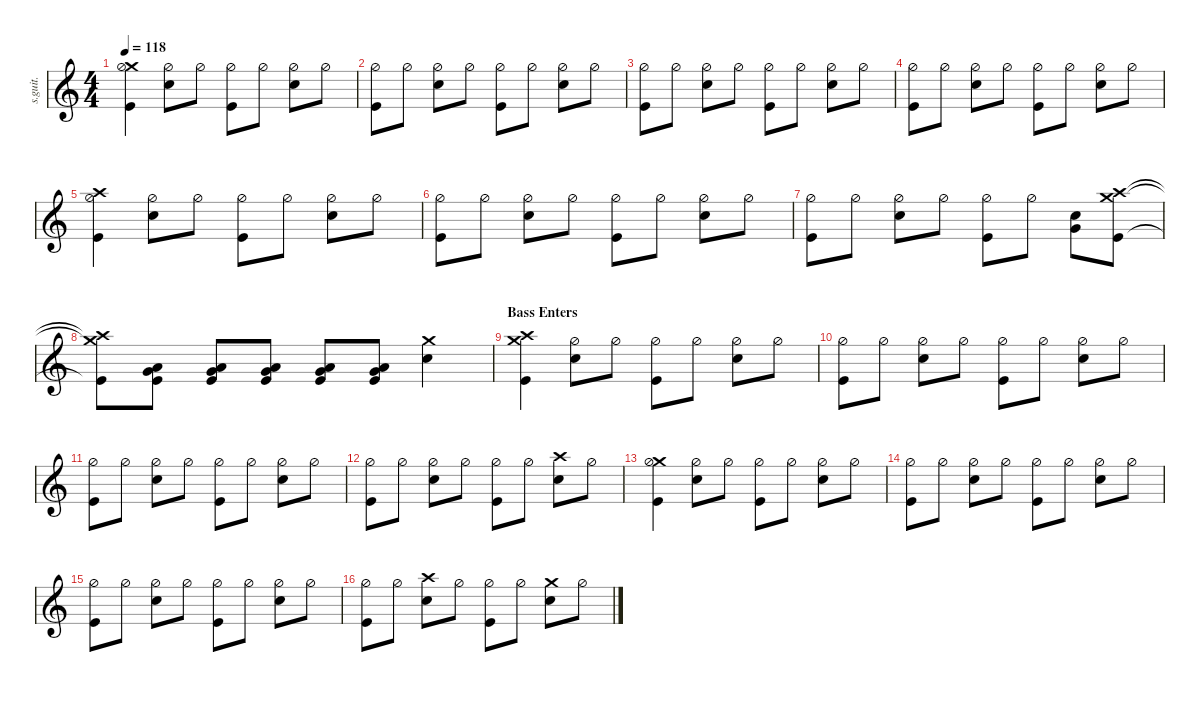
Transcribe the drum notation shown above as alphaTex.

\defaultSystemsLayout 4
\hideDynamics
\bracketExtendMode nobrackets
\track ("Drums [Arin Ilejay]" "s.guit.") {instrument percussion}
\staff {score}
\articulation defaults
\ts (4 4)
\tempo 118
\clef g2
\ks c
("Crash medium (hit)" "Hi-Hat (half)" "Kick (hit)").4{lyrics (0 "") lyrics (1 "") lyrics (2 "") lyrics (3 "") lyrics (4 "") dy f} ("Hi-Hat (half)" "Snare (hit) 2").8{lyrics (0 "") lyrics (1 "") lyrics (2 "") lyrics (3 "") lyrics (4 "")} "Hi-Hat (half)".8{lyrics (0 "") lyrics (1 "") lyrics (2 "") lyrics (3 "") lyrics (4 "")} ("Hi-Hat (half)" "Kick (hit)").8{lyrics (0 "") lyrics (1 "") lyrics (2 "") lyrics (3 "") lyrics (4 "")} "Hi-Hat (half)".8{lyrics (0 "") lyrics (1 "") lyrics (2 "") lyrics (3 "") lyrics (4 "")} ("Hi-Hat (half)" "Snare (hit) 2").8{lyrics (0 "") lyrics (1 "") lyrics (2 "") lyrics (3 "") lyrics (4 "")} "Hi-Hat (half)".8{lyrics (0 "") lyrics (1 "") lyrics (2 "") lyrics (3 "") lyrics (4 "")} |
("Hi-Hat (half)" "Kick (hit)").8{lyrics (0 "") lyrics (1 "") lyrics (2 "") lyrics (3 "") lyrics (4 "")} "Hi-Hat (half)".8{lyrics (0 "") lyrics (1 "") lyrics (2 "") lyrics (3 "") lyrics (4 "")} ("Hi-Hat (half)" "Snare (hit) 2").8{lyrics (0 "") lyrics (1 "") lyrics (2 "") lyrics (3 "") lyrics (4 "")} "Hi-Hat (half)".8{lyrics (0 "") lyrics (1 "") lyrics (2 "") lyrics (3 "") lyrics (4 "")} ("Hi-Hat (half)" "Kick (hit)").8{lyrics (0 "") lyrics (1 "") lyrics (2 "") lyrics (3 "") lyrics (4 "")} "Hi-Hat (half)".8{lyrics (0 "") lyrics (1 "") lyrics (2 "") lyrics (3 "") lyrics (4 "")} ("Hi-Hat (half)" "Snare (hit) 2").8{lyrics (0 "") lyrics (1 "") lyrics (2 "") lyrics (3 "") lyrics (4 "")} "Hi-Hat (half)".8{lyrics (0 "") lyrics (1 "") lyrics (2 "") lyrics (3 "") lyrics (4 "")} |
("Hi-Hat (half)" "Kick (hit)").8{lyrics (0 "") lyrics (1 "") lyrics (2 "") lyrics (3 "") lyrics (4 "")} "Hi-Hat (half)".8{lyrics (0 "") lyrics (1 "") lyrics (2 "") lyrics (3 "") lyrics (4 "")} ("Hi-Hat (half)" "Snare (hit) 2").8{lyrics (0 "") lyrics (1 "") lyrics (2 "") lyrics (3 "") lyrics (4 "")} "Hi-Hat (half)".8{lyrics (0 "") lyrics (1 "") lyrics (2 "") lyrics (3 "") lyrics (4 "")} ("Hi-Hat (half)" "Kick (hit)").8{lyrics (0 "") lyrics (1 "") lyrics (2 "") lyrics (3 "") lyrics (4 "")} "Hi-Hat (half)".8{lyrics (0 "") lyrics (1 "") lyrics (2 "") lyrics (3 "") lyrics (4 "")} ("Hi-Hat (half)" "Snare (hit) 2").8{lyrics (0 "") lyrics (1 "") lyrics (2 "") lyrics (3 "") lyrics (4 "")} "Hi-Hat (half)".8{lyrics (0 "") lyrics (1 "") lyrics (2 "") lyrics (3 "") lyrics (4 "")} |
("Hi-Hat (half)" "Kick (hit)").8{lyrics (0 "") lyrics (1 "") lyrics (2 "") lyrics (3 "") lyrics (4 "")} "Hi-Hat (half)".8{lyrics (0 "") lyrics (1 "") lyrics (2 "") lyrics (3 "") lyrics (4 "")} ("Hi-Hat (half)" "Snare (hit) 2").8{lyrics (0 "") lyrics (1 "") lyrics (2 "") lyrics (3 "") lyrics (4 "")} "Hi-Hat (half)".8{lyrics (0 "") lyrics (1 "") lyrics (2 "") lyrics (3 "") lyrics (4 "")} ("Hi-Hat (half)" "Kick (hit)").8{lyrics (0 "") lyrics (1 "") lyrics (2 "") lyrics (3 "") lyrics (4 "")} "Hi-Hat (half)".8{lyrics (0 "") lyrics (1 "") lyrics (2 "") lyrics (3 "") lyrics (4 "")} ("Hi-Hat (half)" "Snare (hit) 2").8{lyrics (0 "") lyrics (1 "") lyrics (2 "") lyrics (3 "") lyrics (4 "")} "Hi-Hat (half)".8{lyrics (0 "") lyrics (1 "") lyrics (2 "") lyrics (3 "") lyrics (4 "")} |
("Crash high (hit)" "Hi-Hat (half)" "Kick (hit)").4{lyrics (0 "") lyrics (1 "") lyrics (2 "") lyrics (3 "") lyrics (4 "")} ("Hi-Hat (half)" "Snare (hit) 2").8{lyrics (0 "") lyrics (1 "") lyrics (2 "") lyrics (3 "") lyrics (4 "")} "Hi-Hat (half)".8{lyrics (0 "") lyrics (1 "") lyrics (2 "") lyrics (3 "") lyrics (4 "")} ("Hi-Hat (half)" "Kick (hit)").8{lyrics (0 "") lyrics (1 "") lyrics (2 "") lyrics (3 "") lyrics (4 "")} "Hi-Hat (half)".8{lyrics (0 "") lyrics (1 "") lyrics (2 "") lyrics (3 "") lyrics (4 "")} ("Hi-Hat (half)" "Snare (hit) 2").8{lyrics (0 "") lyrics (1 "") lyrics (2 "") lyrics (3 "") lyrics (4 "")} "Hi-Hat (half)".8{lyrics (0 "") lyrics (1 "") lyrics (2 "") lyrics (3 "") lyrics (4 "")} |
("Hi-Hat (half)" "Kick (hit)").8{lyrics (0 "") lyrics (1 "") lyrics (2 "") lyrics (3 "") lyrics (4 "")} "Hi-Hat (half)".8{lyrics (0 "") lyrics (1 "") lyrics (2 "") lyrics (3 "") lyrics (4 "")} ("Hi-Hat (half)" "Snare (hit) 2").8{lyrics (0 "") lyrics (1 "") lyrics (2 "") lyrics (3 "") lyrics (4 "")} "Hi-Hat (half)".8{lyrics (0 "") lyrics (1 "") lyrics (2 "") lyrics (3 "") lyrics (4 "")} ("Hi-Hat (half)" "Kick (hit)").8{lyrics (0 "") lyrics (1 "") lyrics (2 "") lyrics (3 "") lyrics (4 "")} "Hi-Hat (half)".8{lyrics (0 "") lyrics (1 "") lyrics (2 "") lyrics (3 "") lyrics (4 "")} ("Hi-Hat (half)" "Snare (hit) 2").8{lyrics (0 "") lyrics (1 "") lyrics (2 "") lyrics (3 "") lyrics (4 "")} "Hi-Hat (half)".8{lyrics (0 "") lyrics (1 "") lyrics (2 "") lyrics (3 "") lyrics (4 "")} |
("Hi-Hat (half)" "Kick (hit)").8{lyrics (0 "") lyrics (1 "") lyrics (2 "") lyrics (3 "") lyrics (4 "")} "Hi-Hat (half)".8{lyrics (0 "") lyrics (1 "") lyrics (2 "") lyrics (3 "") lyrics (4 "")} ("Hi-Hat (half)" "Snare (hit) 2").8{lyrics (0 "") lyrics (1 "") lyrics (2 "") lyrics (3 "") lyrics (4 "")} "Hi-Hat (half)".8{lyrics (0 "") lyrics (1 "") lyrics (2 "") lyrics (3 "") lyrics (4 "")} ("Hi-Hat (half)" "Kick (hit)").8{lyrics (0 "") lyrics (1 "") lyrics (2 "") lyrics (3 "") lyrics (4 "")} "Hi-Hat (half)".8{lyrics (0 "") lyrics (1 "") lyrics (2 "") lyrics (3 "") lyrics (4 "")} ("Snare (hit) 2" "Very Low Tom (hit)").8{lyrics (0 "") lyrics (1 "") lyrics (2 "") lyrics (3 "") lyrics (4 "")} ("Crash high (hit)" "Crash medium (hit)" "Kick (hit)").8{lyrics (0 "") lyrics (1 "") lyrics (2 "") lyrics (3 "") lyrics (4 "")} |
("Crash high (hit)"{t} "Crash medium (hit)"{t} "Kick (hit)"{t}).8{lyrics (0 "") lyrics (1 "") lyrics (2 "") lyrics (3 "") lyrics (4 "")} ("Low Tom (hit)" "Very Low Tom (hit)" "Kick (hit)").8{lyrics (0 "") lyrics (1 "") lyrics (2 "") lyrics (3 "") lyrics (4 "") dy mp} ("Low Tom (hit)" "Very Low Tom (hit)" "Kick (hit)").8{lyrics (0 "") lyrics (1 "") lyrics (2 "") lyrics (3 "") lyrics (4 "")} ("Low Tom (hit)" "Very Low Tom (hit)" "Kick (hit)").8{lyrics (0 "") lyrics (1 "") lyrics (2 "") lyrics (3 "") lyrics (4 "")} ("Low Tom (hit)" "Very Low Tom (hit)" "Kick (hit)").8{lyrics (0 "") lyrics (1 "") lyrics (2 "") lyrics (3 "") lyrics (4 "")} ("Low Tom (hit)" "Very Low Tom (hit)" "Kick (hit)").8{lyrics (0 "") lyrics (1 "") lyrics (2 "") lyrics (3 "") lyrics (4 "")} ("Crash medium (hit)" "Snare (hit) 2").4{lyrics (0 "") lyrics (1 "") lyrics (2 "") lyrics (3 "") lyrics (4 "") dy f} |
\section ("" "Bass Enters")
("Crash high (hit)" "Crash medium (hit)" "Kick (hit)").4{lyrics (0 "") lyrics (1 "") lyrics (2 "") lyrics (3 "") lyrics (4 "")} ("Hi-Hat (half)" "Snare (hit) 2").8{lyrics (0 "") lyrics (1 "") lyrics (2 "") lyrics (3 "") lyrics (4 "")} "Hi-Hat (half)".8{lyrics (0 "") lyrics (1 "") lyrics (2 "") lyrics (3 "") lyrics (4 "")} ("Hi-Hat (half)" "Kick (hit)").8{lyrics (0 "") lyrics (1 "") lyrics (2 "") lyrics (3 "") lyrics (4 "")} "Hi-Hat (half)".8{lyrics (0 "") lyrics (1 "") lyrics (2 "") lyrics (3 "") lyrics (4 "")} ("Hi-Hat (half)" "Snare (hit) 2").8{lyrics (0 "") lyrics (1 "") lyrics (2 "") lyrics (3 "") lyrics (4 "")} "Hi-Hat (half)".8{lyrics (0 "") lyrics (1 "") lyrics (2 "") lyrics (3 "") lyrics (4 "")} |
("Hi-Hat (half)" "Kick (hit)").8{lyrics (0 "") lyrics (1 "") lyrics (2 "") lyrics (3 "") lyrics (4 "")} "Hi-Hat (half)".8{lyrics (0 "") lyrics (1 "") lyrics (2 "") lyrics (3 "") lyrics (4 "")} ("Hi-Hat (half)" "Snare (hit) 2").8{lyrics (0 "") lyrics (1 "") lyrics (2 "") lyrics (3 "") lyrics (4 "")} "Hi-Hat (half)".8{lyrics (0 "") lyrics (1 "") lyrics (2 "") lyrics (3 "") lyrics (4 "")} ("Hi-Hat (half)" "Kick (hit)").8{lyrics (0 "") lyrics (1 "") lyrics (2 "") lyrics (3 "") lyrics (4 "")} "Hi-Hat (half)".8{lyrics (0 "") lyrics (1 "") lyrics (2 "") lyrics (3 "") lyrics (4 "")} ("Hi-Hat (half)" "Snare (hit) 2").8{lyrics (0 "") lyrics (1 "") lyrics (2 "") lyrics (3 "") lyrics (4 "")} "Hi-Hat (half)".8{lyrics (0 "") lyrics (1 "") lyrics (2 "") lyrics (3 "") lyrics (4 "")} |
("Hi-Hat (half)" "Kick (hit)").8{lyrics (0 "") lyrics (1 "") lyrics (2 "") lyrics (3 "") lyrics (4 "")} "Hi-Hat (half)".8{lyrics (0 "") lyrics (1 "") lyrics (2 "") lyrics (3 "") lyrics (4 "")} ("Hi-Hat (half)" "Snare (hit) 2").8{lyrics (0 "") lyrics (1 "") lyrics (2 "") lyrics (3 "") lyrics (4 "")} "Hi-Hat (half)".8{lyrics (0 "") lyrics (1 "") lyrics (2 "") lyrics (3 "") lyrics (4 "")} ("Hi-Hat (half)" "Kick (hit)").8{lyrics (0 "") lyrics (1 "") lyrics (2 "") lyrics (3 "") lyrics (4 "")} "Hi-Hat (half)".8{lyrics (0 "") lyrics (1 "") lyrics (2 "") lyrics (3 "") lyrics (4 "")} ("Hi-Hat (half)" "Snare (hit) 2").8{lyrics (0 "") lyrics (1 "") lyrics (2 "") lyrics (3 "") lyrics (4 "")} "Hi-Hat (half)".8{lyrics (0 "") lyrics (1 "") lyrics (2 "") lyrics (3 "") lyrics (4 "")} |
("Hi-Hat (half)" "Kick (hit)").8{lyrics (0 "") lyrics (1 "") lyrics (2 "") lyrics (3 "") lyrics (4 "")} "Hi-Hat (half)".8{lyrics (0 "") lyrics (1 "") lyrics (2 "") lyrics (3 "") lyrics (4 "")} ("Hi-Hat (half)" "Snare (hit) 2").8{lyrics (0 "") lyrics (1 "") lyrics (2 "") lyrics (3 "") lyrics (4 "")} "Hi-Hat (half)".8{lyrics (0 "") lyrics (1 "") lyrics (2 "") lyrics (3 "") lyrics (4 "")} ("Hi-Hat (half)" "Kick (hit)").8{lyrics (0 "") lyrics (1 "") lyrics (2 "") lyrics (3 "") lyrics (4 "")} "Hi-Hat (half)".8{lyrics (0 "") lyrics (1 "") lyrics (2 "") lyrics (3 "") lyrics (4 "")} ("Crash high (hit)" "Snare (hit) 2").8{lyrics (0 "") lyrics (1 "") lyrics (2 "") lyrics (3 "") lyrics (4 "")} "Hi-Hat (half)".8{lyrics (0 "") lyrics (1 "") lyrics (2 "") lyrics (3 "") lyrics (4 "")} |
("Crash medium (hit)" "Hi-Hat (half)" "Kick (hit)").4{lyrics (0 "") lyrics (1 "") lyrics (2 "") lyrics (3 "") lyrics (4 "")} ("Hi-Hat (half)" "Snare (hit) 2").8{lyrics (0 "") lyrics (1 "") lyrics (2 "") lyrics (3 "") lyrics (4 "")} "Hi-Hat (half)".8{lyrics (0 "") lyrics (1 "") lyrics (2 "") lyrics (3 "") lyrics (4 "")} ("Hi-Hat (half)" "Kick (hit)").8{lyrics (0 "") lyrics (1 "") lyrics (2 "") lyrics (3 "") lyrics (4 "")} "Hi-Hat (half)".8{lyrics (0 "") lyrics (1 "") lyrics (2 "") lyrics (3 "") lyrics (4 "")} ("Hi-Hat (half)" "Snare (hit) 2").8{lyrics (0 "") lyrics (1 "") lyrics (2 "") lyrics (3 "") lyrics (4 "")} "Hi-Hat (half)".8{lyrics (0 "") lyrics (1 "") lyrics (2 "") lyrics (3 "") lyrics (4 "")} |
("Hi-Hat (half)" "Kick (hit)").8{lyrics (0 "") lyrics (1 "") lyrics (2 "") lyrics (3 "") lyrics (4 "")} "Hi-Hat (half)".8{lyrics (0 "") lyrics (1 "") lyrics (2 "") lyrics (3 "") lyrics (4 "")} ("Hi-Hat (half)" "Snare (hit) 2").8{lyrics (0 "") lyrics (1 "") lyrics (2 "") lyrics (3 "") lyrics (4 "")} "Hi-Hat (half)".8{lyrics (0 "") lyrics (1 "") lyrics (2 "") lyrics (3 "") lyrics (4 "")} ("Hi-Hat (half)" "Kick (hit)").8{lyrics (0 "") lyrics (1 "") lyrics (2 "") lyrics (3 "") lyrics (4 "")} "Hi-Hat (half)".8{lyrics (0 "") lyrics (1 "") lyrics (2 "") lyrics (3 "") lyrics (4 "")} ("Hi-Hat (half)" "Snare (hit) 2").8{lyrics (0 "") lyrics (1 "") lyrics (2 "") lyrics (3 "") lyrics (4 "")} "Hi-Hat (half)".8{lyrics (0 "") lyrics (1 "") lyrics (2 "") lyrics (3 "") lyrics (4 "")} |
("Hi-Hat (half)" "Kick (hit)").8{lyrics (0 "") lyrics (1 "") lyrics (2 "") lyrics (3 "") lyrics (4 "")} "Hi-Hat (half)".8{lyrics (0 "") lyrics (1 "") lyrics (2 "") lyrics (3 "") lyrics (4 "")} ("Hi-Hat (half)" "Snare (hit) 2").8{lyrics (0 "") lyrics (1 "") lyrics (2 "") lyrics (3 "") lyrics (4 "")} "Hi-Hat (half)".8{lyrics (0 "") lyrics (1 "") lyrics (2 "") lyrics (3 "") lyrics (4 "")} ("Hi-Hat (half)" "Kick (hit)").8{lyrics (0 "") lyrics (1 "") lyrics (2 "") lyrics (3 "") lyrics (4 "")} "Hi-Hat (half)".8{lyrics (0 "") lyrics (1 "") lyrics (2 "") lyrics (3 "") lyrics (4 "")} ("Hi-Hat (half)" "Snare (hit) 2").8{lyrics (0 "") lyrics (1 "") lyrics (2 "") lyrics (3 "") lyrics (4 "")} "Hi-Hat (half)".8{lyrics (0 "") lyrics (1 "") lyrics (2 "") lyrics (3 "") lyrics (4 "")} |
("Hi-Hat (half)" "Kick (hit)").8{lyrics (0 "") lyrics (1 "") lyrics (2 "") lyrics (3 "") lyrics (4 "")} "Hi-Hat (half)".8{lyrics (0 "") lyrics (1 "") lyrics (2 "") lyrics (3 "") lyrics (4 "")} ("Crash high (hit)" "Snare (hit) 2").8{lyrics (0 "") lyrics (1 "") lyrics (2 "") lyrics (3 "") lyrics (4 "")} "Hi-Hat (half)".8{lyrics (0 "") lyrics (1 "") lyrics (2 "") lyrics (3 "") lyrics (4 "")} ("Hi-Hat (half)" "Kick (hit)").8{lyrics (0 "") lyrics (1 "") lyrics (2 "") lyrics (3 "") lyrics (4 "")} "Hi-Hat (half)".8{lyrics (0 "") lyrics (1 "") lyrics (2 "") lyrics (3 "") lyrics (4 "")} ("Crash medium (hit)" "Snare (hit) 2").8{lyrics (0 "") lyrics (1 "") lyrics (2 "") lyrics (3 "") lyrics (4 "")} "Hi-Hat (half)".8{lyrics (0 "") lyrics (1 "") lyrics (2 "") lyrics (3 "") lyrics (4 "")}
